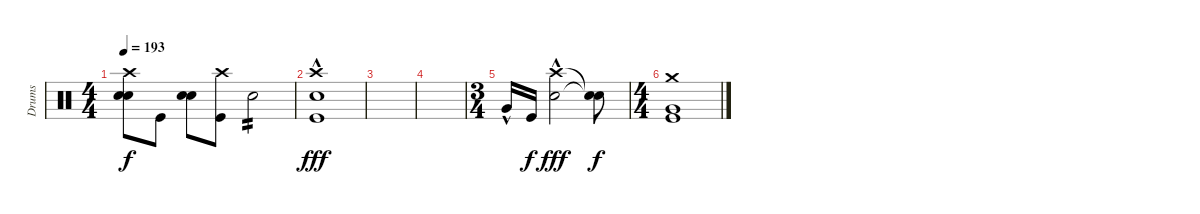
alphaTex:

\track ("Drums" "Drums") {instrument percussion}
\staff {score}
\articulation defaults
\ts (4 4)
\tempo 193
\clef neutral
\ks c
("Crash high (hit)" "Snare (hit) 2" "Snare (hit) 2").8{dy f} "Kick (hit)".8 ("Snare (hit) 2" "Snare (hit) 2").8 ("Crash high (hit)" "Kick (hit)").8 "Snare (hit) 2".2{tp 2} |
("Crash high (hit)"{hac} "Snare (hit) 2"{hac} "Kick (hit)"{hac}).1{dy fff} |
|
|
\ts (3 4)
"Very Low Tom (hit)"{hac}.16 "Kick (hit)".16{dy f} ("Crash high (hit)" "Snare (hit) 2"{hac}).2{dy fff} ("Snare (hit)"{t} "Snare (hit)"{t}).8{dy f} |
\ts (4 4)
("Crash medium (hit)" "Very Low Tom (hit)" "Kick (hit)").1
